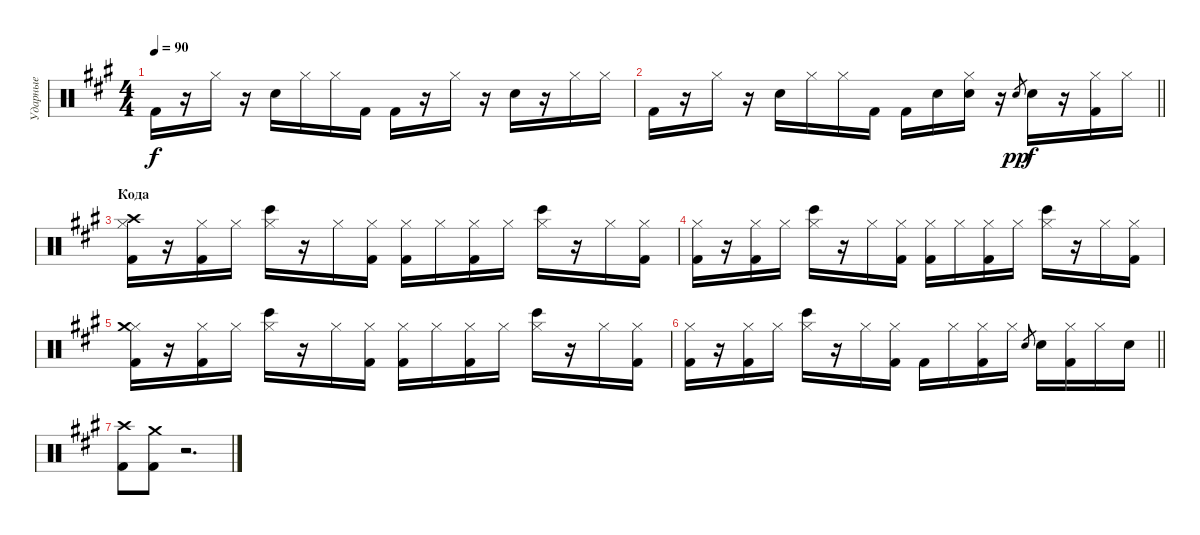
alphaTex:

\track ("Ударные" "Ударные") {instrument percussion}
\staff {score}
\articulation defaults
\ts (4 4)
\tempo 90
\clef neutral
\ks f#minor "Kick (hit) 2".16{dy f}
r.16 "Hi-Hat (closed)".16 r.16 "Electric Snare (hit)".16 "Hi-Hat (closed)".16 "Hi-Hat (closed)".16 "Kick (hit) 2".16 "Kick (hit) 2".16 r.16 "Hi-Hat (closed)".16 r.16 "Electric Snare (hit)".16 r.16 "Hi-Hat (closed)".16 "Hi-Hat (closed)".16 |
\barLineRight lightlight "Kick (hit) 2".16
r.16 "Hi-Hat (closed)".16 r.16 "Electric Snare (hit)".16 "Hi-Hat (closed)".16 "Hi-Hat (closed)".16 "Kick (hit) 2".16 "Kick (hit) 2".16 "Electric Snare (hit)".16 ("Hi-Hat (closed)" "Electric Snare (hit)").16 r.16 "Electric Snare (hit)".8{gr dy pp} "Electric Snare (hit)".16{dy f} r.16 ("Hi-Hat (closed)" "Kick (hit) 2").16 "Hi-Hat (closed)".16 |
\section ("" "Кода")
("Hi-Hat (closed)" "Kick (hit) 2" "Crash high (hit)").16 r.16 ("Hi-Hat (closed)" "Kick (hit) 2").16 "Hi-Hat (closed)".16 ("Hi-Hat (closed)" "Bongo High (hit)").16 r.16 "Hi-Hat (closed)".16 ("Hi-Hat (closed)" "Kick (hit) 2").16 ("Hi-Hat (closed)" "Kick (hit) 2").16 "Hi-Hat (closed)".16 ("Hi-Hat (closed)" "Kick (hit) 2").16 "Hi-Hat (closed)".16 ("Hi-Hat (closed)" "Bongo High (hit)").16 r.16 "Hi-Hat (closed)".16 ("Hi-Hat (closed)" "Kick (hit) 2").16 |
("Hi-Hat (closed)" "Kick (hit) 2").16 r.16 ("Hi-Hat (closed)" "Kick (hit) 2").16 "Hi-Hat (closed)".16 ("Hi-Hat (closed)" "Bongo High (hit)").16 r.16 "Hi-Hat (closed)".16 ("Hi-Hat (closed)" "Kick (hit) 2").16 ("Hi-Hat (closed)" "Kick (hit) 2").16 "Hi-Hat (closed)".16 ("Hi-Hat (closed)" "Kick (hit) 2").16 "Hi-Hat (closed)".16 ("Hi-Hat (closed)" "Bongo High (hit)").16 r.16 "Hi-Hat (closed)".16 ("Hi-Hat (closed)" "Kick (hit) 2").16 |
("Hi-Hat (closed)" "Kick (hit) 2" "Crash medium (hit)").16 r.16 ("Hi-Hat (closed)" "Kick (hit) 2").16 "Hi-Hat (closed)".16 ("Hi-Hat (closed)" "Bongo High (hit)").16 r.16 "Hi-Hat (closed)".16 ("Hi-Hat (closed)" "Kick (hit) 2").16 ("Hi-Hat (closed)" "Kick (hit) 2").16 "Hi-Hat (closed)".16 ("Hi-Hat (closed)" "Kick (hit) 2").16 "Hi-Hat (closed)".16 ("Hi-Hat (closed)" "Bongo High (hit)").16 r.16 "Hi-Hat (closed)".16 ("Hi-Hat (closed)" "Kick (hit) 2").16 |
\barLineRight lightlight
("Hi-Hat (closed)" "Kick (hit) 2").16 r.16 ("Hi-Hat (closed)" "Kick (hit) 2").16 "Hi-Hat (closed)".16 ("Hi-Hat (closed)" "Bongo High (hit)").16 r.16 "Hi-Hat (closed)".16 ("Hi-Hat (closed)" "Kick (hit) 2").16 "Kick (hit) 2".16 "Hi-Hat (closed)".16 ("Hi-Hat (closed)" "Kick (hit) 2").16 "Hi-Hat (closed)".16 "Electric Snare (hit)".8{gr} "Electric Snare (hit)".16 ("Hi-Hat (closed)" "Kick (hit) 2").16 "Hi-Hat (closed)".16 "Electric Snare (hit)".16 |
\section ("" "")
("Kick (hit) 2" "Crash high (hit)").8 ("Kick (hit) 2" "Crash medium (hit)").8 r.2{d}
